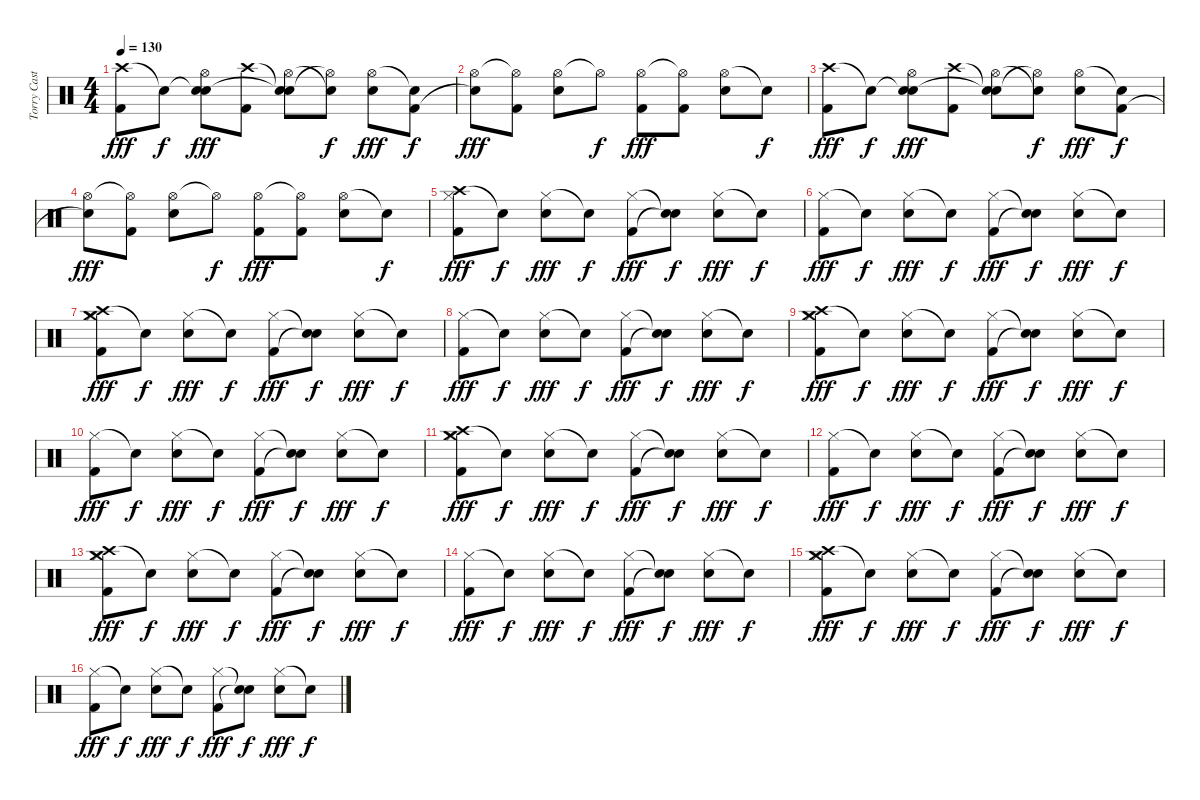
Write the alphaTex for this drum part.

\track ("Torry Castellano" "Torry Cast") {instrument percussion}
\staff {score}
\articulation defaults
\ts (4 4)
\tempo 130
\clef neutral
\ks c
("Crash high (hit)" "Kick (hit) 2").8{dy fff} "Snare (hit)"{t}.8{dy f} ("Snare (hit)"{t} "Hi-Hat (open)" "Electric Snare (hit)").8{dy fff} ("Crash high (hit)" "Kick (hit) 2").8 ("Snare (hit)"{t} "Hi-Hat (open)" "Snare (hit)"{t}).8 ("Hi-Hat (open)"{t} "Electric Snare (hit)"{t}).8{dy f} ("Hi-Hat (open)" "Electric Snare (hit)").8{dy fff} ("Snare (hit)"{t} "Kick (hit) 2").8{dy f} |
("Hi-Hat (open)" "Snare (hit)"{t}).8{dy fff} ("Hi-Hat (open)"{t} "Kick (hit) 2").8 ("Hi-Hat (open)" "Electric Snare (hit)").8 "Hi-Hat (open)"{t}.8{dy f} ("Hi-Hat (open)" "Kick (hit) 2").8{dy fff} ("Hi-Hat (open)"{t} "Kick (hit) 2").8 ("Hi-Hat (open)" "Electric Snare (hit)").8 "Snare (hit)"{t}.8{dy f} |
("Crash high (hit)" "Kick (hit) 2").8{dy fff} "Snare (hit)"{t}.8{dy f} ("Snare (hit)"{t} "Hi-Hat (open)" "Electric Snare (hit)").8{dy fff} ("Crash high (hit)" "Kick (hit) 2").8 ("Snare (hit)"{t} "Hi-Hat (open)" "Snare (hit)"{t}).8 ("Hi-Hat (open)"{t} "Electric Snare (hit)"{t}).8{dy f} ("Hi-Hat (open)" "Electric Snare (hit)").8{dy fff} ("Snare (hit)"{t} "Kick (hit) 2").8{dy f} |
("Hi-Hat (open)" "Snare (hit)"{t}).8{dy fff} ("Hi-Hat (open)"{t} "Kick (hit) 2").8 ("Hi-Hat (open)" "Electric Snare (hit)").8 "Hi-Hat (open)"{t}.8{dy f} ("Hi-Hat (open)" "Kick (hit) 2").8{dy fff} ("Hi-Hat (open)"{t} "Kick (hit) 2").8 ("Hi-Hat (open)" "Electric Snare (hit)").8 "Snare (hit)"{t}.8{dy f} |
("Crash high (hit)" "Hi-Hat (closed)" "Kick (hit) 2").8{dy fff} "Snare (hit)"{t}.8{dy f} ("Hi-Hat (closed)" "Electric Snare (hit)").8{dy fff} "Snare (hit)"{t}.8{dy f} ("Hi-Hat (closed)" "Kick (hit) 2").8{dy fff} ("Snare (hit)"{t} "Snare (hit)"{t}).8{dy f} ("Hi-Hat (closed)" "Electric Snare (hit)").8{dy fff} "Snare (hit)"{t}.8{dy f} |
("Hi-Hat (closed)" "Kick (hit) 2").8{dy fff} "Snare (hit)"{t}.8{dy f} ("Hi-Hat (closed)" "Electric Snare (hit)").8{dy fff} "Snare (hit)"{t}.8{dy f} ("Hi-Hat (closed)" "Kick (hit) 2").8{dy fff} ("Snare (hit)"{t} "Snare (hit)"{t}).8{dy f} ("Hi-Hat (closed)" "Electric Snare (hit)").8{dy fff} "Snare (hit)"{t}.8{dy f} |
("Crash high (hit)" "Crash medium (hit)" "Hi-Hat (closed)" "Kick (hit) 2").8{dy fff} "Snare (hit)"{t}.8{dy f} ("Hi-Hat (closed)" "Electric Snare (hit)").8{dy fff} "Snare (hit)"{t}.8{dy f} ("Hi-Hat (closed)" "Kick (hit) 2").8{dy fff} ("Snare (hit)"{t} "Snare (hit)"{t}).8{dy f} ("Hi-Hat (closed)" "Electric Snare (hit)").8{dy fff} "Snare (hit)"{t}.8{dy f} |
("Hi-Hat (closed)" "Kick (hit) 2").8{dy fff} "Snare (hit)"{t}.8{dy f} ("Hi-Hat (closed)" "Electric Snare (hit)").8{dy fff} "Snare (hit)"{t}.8{dy f} ("Hi-Hat (closed)" "Kick (hit) 2").8{dy fff} ("Snare (hit)"{t} "Snare (hit)"{t}).8{dy f} ("Hi-Hat (closed)" "Electric Snare (hit)").8{dy fff} "Snare (hit)"{t}.8{dy f} |
("Crash high (hit)" "Crash medium (hit)" "Hi-Hat (closed)" "Kick (hit) 2").8{dy fff} "Snare (hit)"{t}.8{dy f} ("Hi-Hat (closed)" "Electric Snare (hit)").8{dy fff} "Snare (hit)"{t}.8{dy f} ("Hi-Hat (closed)" "Kick (hit) 2").8{dy fff} ("Snare (hit)"{t} "Snare (hit)"{t}).8{dy f} ("Hi-Hat (closed)" "Electric Snare (hit)").8{dy fff} "Snare (hit)"{t}.8{dy f} |
("Hi-Hat (closed)" "Kick (hit) 2").8{dy fff} "Snare (hit)"{t}.8{dy f} ("Hi-Hat (closed)" "Electric Snare (hit)").8{dy fff} "Snare (hit)"{t}.8{dy f} ("Hi-Hat (closed)" "Kick (hit) 2").8{dy fff} ("Snare (hit)"{t} "Snare (hit)"{t}).8{dy f} ("Hi-Hat (closed)" "Electric Snare (hit)").8{dy fff} "Snare (hit)"{t}.8{dy f} |
("Crash high (hit)" "Crash medium (hit)" "Hi-Hat (closed)" "Kick (hit) 2").8{dy fff} "Snare (hit)"{t}.8{dy f} ("Hi-Hat (closed)" "Electric Snare (hit)").8{dy fff} "Snare (hit)"{t}.8{dy f} ("Hi-Hat (closed)" "Kick (hit) 2").8{dy fff} ("Snare (hit)"{t} "Snare (hit)"{t}).8{dy f} ("Hi-Hat (closed)" "Electric Snare (hit)").8{dy fff} "Snare (hit)"{t}.8{dy f} |
("Hi-Hat (closed)" "Kick (hit) 2").8{dy fff} "Snare (hit)"{t}.8{dy f} ("Hi-Hat (closed)" "Electric Snare (hit)").8{dy fff} "Snare (hit)"{t}.8{dy f} ("Hi-Hat (closed)" "Kick (hit) 2").8{dy fff} ("Snare (hit)"{t} "Snare (hit)"{t}).8{dy f} ("Hi-Hat (closed)" "Electric Snare (hit)").8{dy fff} "Snare (hit)"{t}.8{dy f} |
("Crash high (hit)" "Crash medium (hit)" "Hi-Hat (closed)" "Kick (hit) 2").8{dy fff} "Snare (hit)"{t}.8{dy f} ("Hi-Hat (closed)" "Electric Snare (hit)").8{dy fff} "Snare (hit)"{t}.8{dy f} ("Hi-Hat (closed)" "Kick (hit) 2").8{dy fff} ("Snare (hit)"{t} "Snare (hit)"{t}).8{dy f} ("Hi-Hat (closed)" "Electric Snare (hit)").8{dy fff} "Snare (hit)"{t}.8{dy f} |
("Hi-Hat (closed)" "Kick (hit) 2").8{dy fff} "Snare (hit)"{t}.8{dy f} ("Hi-Hat (closed)" "Electric Snare (hit)").8{dy fff} "Snare (hit)"{t}.8{dy f} ("Hi-Hat (closed)" "Kick (hit) 2").8{dy fff} ("Snare (hit)"{t} "Snare (hit)"{t}).8{dy f} ("Hi-Hat (closed)" "Electric Snare (hit)").8{dy fff} "Snare (hit)"{t}.8{dy f} |
("Crash high (hit)" "Crash medium (hit)" "Hi-Hat (closed)" "Kick (hit) 2").8{dy fff} "Snare (hit)"{t}.8{dy f} ("Hi-Hat (closed)" "Electric Snare (hit)").8{dy fff} "Snare (hit)"{t}.8{dy f} ("Hi-Hat (closed)" "Kick (hit) 2").8{dy fff} ("Snare (hit)"{t} "Snare (hit)"{t}).8{dy f} ("Hi-Hat (closed)" "Electric Snare (hit)").8{dy fff} "Snare (hit)"{t}.8{dy f} |
("Hi-Hat (closed)" "Kick (hit) 2").8{dy fff} "Snare (hit)"{t}.8{dy f} ("Hi-Hat (closed)" "Electric Snare (hit)").8{dy fff} "Snare (hit)"{t}.8{dy f} ("Hi-Hat (closed)" "Kick (hit) 2").8{dy fff} ("Snare (hit)"{t} "Snare (hit)"{t}).8{dy f} ("Hi-Hat (closed)" "Electric Snare (hit)").8{dy fff} "Snare (hit)"{t}.8{dy f}
